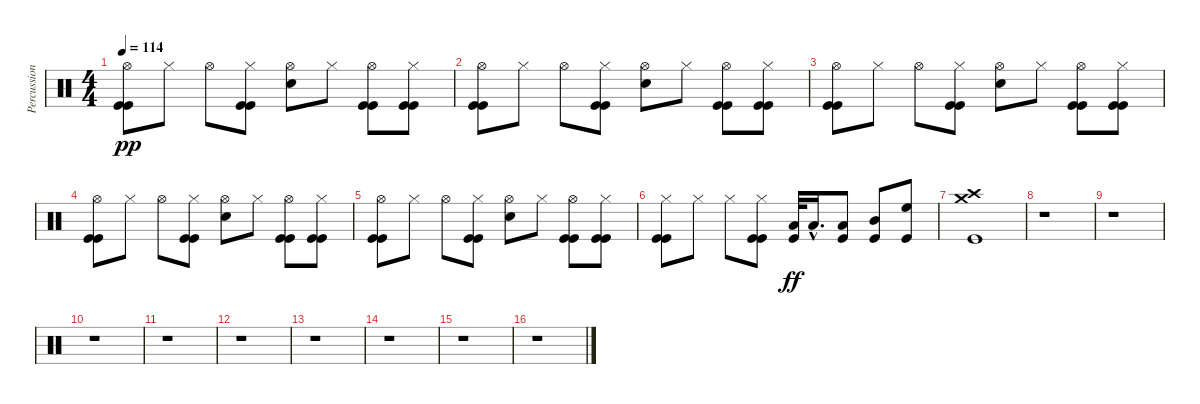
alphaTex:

\track ("Percussion" "Percussion") {instrument percussion}
\staff {score}
\articulation defaults
\ts (4 4)
\tempo 114
\clef neutral
\ks c
("Kick (hit)" "Hi-Hat (open)" "Kick (hit)").8{dy pp} "Hi-Hat (closed)".8 "Hi-Hat (open)".8 ("Kick (hit)" "Hi-Hat (closed)" "Kick (hit)").8 ("Snare (hit) 2" "Hi-Hat (open)").8 "Hi-Hat (closed)".8 ("Kick (hit)" "Hi-Hat (open)" "Kick (hit)").8 ("Kick (hit)" "Hi-Hat (closed)" "Kick (hit)").8 |
("Kick (hit)" "Hi-Hat (open)" "Kick (hit)").8 "Hi-Hat (closed)".8 "Hi-Hat (open)".8 ("Kick (hit)" "Hi-Hat (closed)" "Kick (hit)").8 ("Snare (hit) 2" "Hi-Hat (open)").8 "Hi-Hat (closed)".8 ("Kick (hit)" "Hi-Hat (open)" "Kick (hit)").8 ("Kick (hit)" "Hi-Hat (closed)" "Kick (hit)").8 |
("Kick (hit)" "Hi-Hat (open)" "Kick (hit)").8 "Hi-Hat (closed)".8 "Hi-Hat (open)".8 ("Kick (hit)" "Hi-Hat (closed)" "Kick (hit)").8 ("Snare (hit) 2" "Hi-Hat (open)").8 "Hi-Hat (closed)".8 ("Kick (hit)" "Hi-Hat (open)" "Kick (hit)").8 ("Kick (hit)" "Hi-Hat (closed)" "Kick (hit)").8 |
("Kick (hit)" "Hi-Hat (open)" "Kick (hit)").8 "Hi-Hat (closed)".8 "Hi-Hat (open)".8 ("Kick (hit)" "Hi-Hat (closed)" "Kick (hit)").8 ("Snare (hit) 2" "Hi-Hat (open)").8 "Hi-Hat (closed)".8 ("Kick (hit)" "Hi-Hat (open)" "Kick (hit)").8 ("Kick (hit)" "Hi-Hat (closed)" "Kick (hit)").8 |
("Kick (hit)" "Hi-Hat (open)" "Kick (hit)").8 "Hi-Hat (closed)".8 "Hi-Hat (open)".8 ("Kick (hit)" "Hi-Hat (closed)" "Kick (hit)").8 ("Snare (hit) 2" "Hi-Hat (open)").8 "Hi-Hat (closed)".8 ("Kick (hit)" "Hi-Hat (open)" "Kick (hit)").8 ("Kick (hit)" "Hi-Hat (closed)" "Kick (hit)").8 |
("Kick (hit)" "Hi-Hat (closed)" "Kick (hit)").8 "Hi-Hat (closed)".8 "Hi-Hat (closed)".8 ("Kick (hit)" "Hi-Hat (closed)" "Kick (hit)").8 ("Kick (hit)" "Low Tom (hit)").32{dy ff} "Low Tom (hit)"{hac}.16{d} ("Kick (hit)" "Low Tom (hit)").8 ("Kick (hit)" "Mid Tom (hit)").8 ("Kick (hit)" "High Floor Tom (hit)").8 |
("Kick (hit)" "Crash medium (hit)" "Crash high (hit)").1 |
r.1 |
r.1 |
r.1 |
r.1 |
r.1 |
r.1 |
r.1 |
r.1 |
r.1
